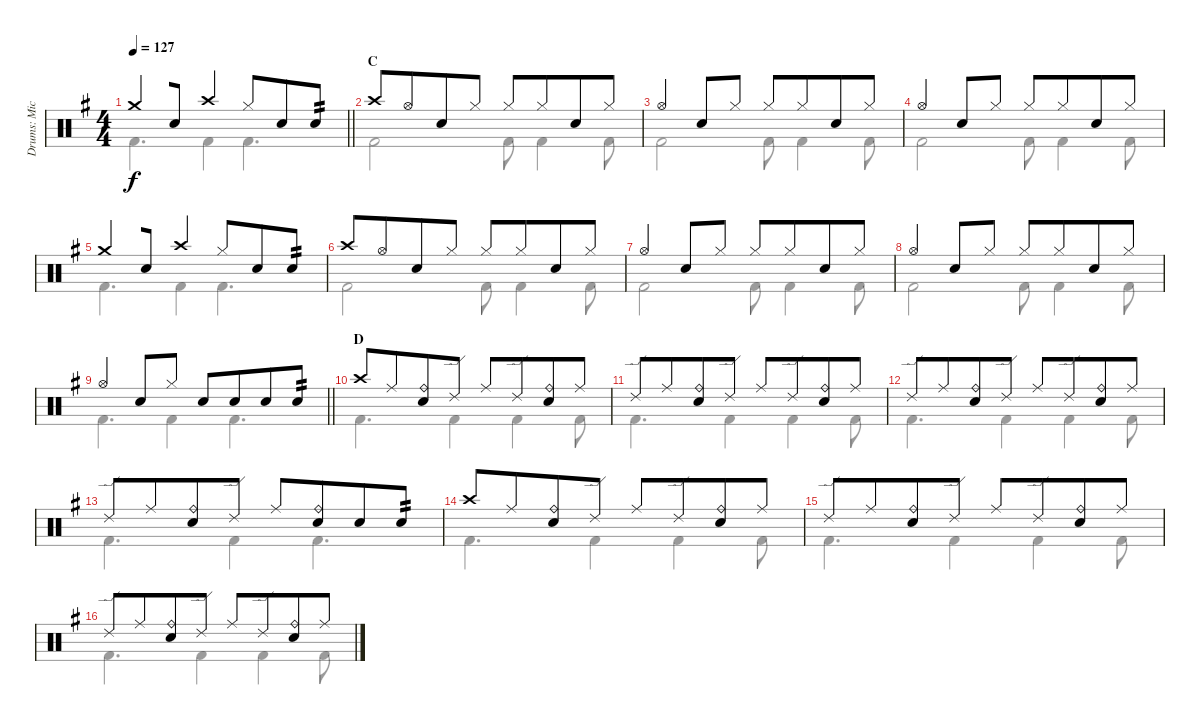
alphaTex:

\track ("Drums: Mick" "Drums: Mic") {instrument percussion}
\staff {score}
\articulation defaults
\voice
\ts (4 4)
\tempo 127
\clef neutral
\barLineRight lightlight
\ks g "Crash medium (hit)".4{dy f beam merge} "Electric Snare (hit)".8 "Crash high (hit)".4 "Hi-Hat (closed)".8{beam merge} "Electric Snare (hit)".8 "Electric Snare (hit)".8{tp 2}
|
\section ("" "C")
"Crash high (hit)".8 "Hi-Hat (open)".8{beam merge} "Electric Snare (hit)".8 "Hi-Hat (closed)".8 "Hi-Hat (closed)".8 "Hi-Hat (closed)".8{beam merge} "Electric Snare (hit)".8 "Hi-Hat (closed)".8 |
"Hi-Hat (open)".4{beam merge} "Electric Snare (hit)".8 "Hi-Hat (closed)".8 "Hi-Hat (closed)".8 "Hi-Hat (closed)".8{beam merge} "Electric Snare (hit)".8 "Hi-Hat (closed)".8 |
"Hi-Hat (open)".4{beam merge} "Electric Snare (hit)".8 "Hi-Hat (closed)".8 "Hi-Hat (closed)".8 "Hi-Hat (closed)".8{beam merge} "Electric Snare (hit)".8 "Hi-Hat (closed)".8 |
"Crash medium (hit)".4{beam merge} "Electric Snare (hit)".8 "Crash high (hit)".4 "Hi-Hat (closed)".8{beam merge} "Electric Snare (hit)".8 "Electric Snare (hit)".8{tp 2} |
"Crash high (hit)".8 "Hi-Hat (open)".8{beam merge} "Electric Snare (hit)".8 "Hi-Hat (closed)".8 "Hi-Hat (closed)".8 "Hi-Hat (closed)".8{beam merge} "Electric Snare (hit)".8 "Hi-Hat (closed)".8 |
"Hi-Hat (open)".4{beam merge} "Electric Snare (hit)".8 "Hi-Hat (closed)".8 "Hi-Hat (closed)".8 "Hi-Hat (closed)".8{beam merge} "Electric Snare (hit)".8 "Hi-Hat (closed)".8 |
"Hi-Hat (open)".4{beam merge} "Electric Snare (hit)".8 "Hi-Hat (closed)".8 "Hi-Hat (closed)".8 "Hi-Hat (closed)".8{beam merge} "Electric Snare (hit)".8 "Hi-Hat (closed)".8 |
\barLineRight lightlight "Hi-Hat (open)".4{beam merge} "Electric Snare (hit)".8 "Hi-Hat (closed)".8 "Electric Snare (hit)".8 "Electric Snare (hit)".8{beam merge} "Electric Snare (hit)".8 "Electric Snare (hit)".8{tp 2}
|
\section ("" "D")
"Crash high (hit)".8 "Ride (middle)".8{beam merge} ("Ride (bell)" "Electric Snare (hit)").8 "Ride (edge) 2".8 "Ride (middle)".8 "Ride (edge) 2".8{beam merge} ("Ride (bell)" "Electric Snare (hit)").8 "Ride (middle)".8 |
"Ride (edge) 2".8 "Ride (middle)".8{beam merge} ("Ride (bell)" "Electric Snare (hit)").8 "Ride (edge) 2".8 "Ride (middle)".8 "Ride (edge) 2".8{beam merge} ("Ride (bell)" "Electric Snare (hit)").8 "Ride (middle)".8 |
"Ride (edge) 2".8 "Ride (middle)".8{beam merge} ("Ride (bell)" "Electric Snare (hit)").8 "Ride (edge) 2".8 "Ride (middle)".8 "Ride (edge) 2".8{beam merge} ("Ride (bell)" "Electric Snare (hit)").8 "Ride (middle)".8 |
"Ride (edge) 2".8 "Ride (middle)".8{beam merge} ("Ride (bell)" "Electric Snare (hit)").8 "Ride (edge) 2".8 "Ride (middle)".8{beam merge} ("Ride (bell)" "Electric Snare (hit)").8{beam merge} "Electric Snare (hit)".8 "Electric Snare (hit)".8{tp 2} |
"Crash high (hit)".8 "Ride (middle)".8{beam merge} ("Ride (bell)" "Electric Snare (hit)").8 "Ride (edge) 2".8 "Ride (middle)".8 "Ride (edge) 2".8{beam merge} ("Ride (bell)" "Electric Snare (hit)").8 "Ride (middle)".8 |
"Ride (edge) 2".8 "Ride (middle)".8{beam merge} ("Ride (bell)" "Electric Snare (hit)").8 "Ride (edge) 2".8 "Ride (middle)".8 "Ride (edge) 2".8{beam merge} ("Ride (bell)" "Electric Snare (hit)").8 "Ride (middle)".8 |
"Ride (edge) 2".8 "Ride (middle)".8{beam merge} ("Ride (bell)" "Electric Snare (hit)").8 "Ride (edge) 2".8 "Ride (middle)".8 "Ride (edge) 2".8{beam merge} ("Ride (bell)" "Electric Snare (hit)").8 "Ride (middle)".8
\voice
\clef neutral
\ottava regular
\simile none
\barLineRight lightlight
\ks g "Kick (hit) 2".4{d dy f} "Kick (hit) 2".4 "Kick (hit) 2".4{d}
|
"Kick (hit) 2".2 "Kick (hit) 2".8 "Kick (hit) 2".4 "Kick (hit) 2".8 |
"Kick (hit) 2".2 "Kick (hit) 2".8 "Kick (hit) 2".4 "Kick (hit) 2".8 |
"Kick (hit) 2".2 "Kick (hit) 2".8 "Kick (hit) 2".4 "Kick (hit) 2".8 |
"Kick (hit) 2".4{d} "Kick (hit) 2".4 "Kick (hit) 2".4{d} |
"Kick (hit) 2".2 "Kick (hit) 2".8 "Kick (hit) 2".4 "Kick (hit) 2".8 |
"Kick (hit) 2".2 "Kick (hit) 2".8 "Kick (hit) 2".4 "Kick (hit) 2".8 |
"Kick (hit) 2".2 "Kick (hit) 2".8 "Kick (hit) 2".4 "Kick (hit) 2".8 |
\barLineRight lightlight "Kick (hit) 2".4{d} "Kick (hit) 2".4 "Kick (hit) 2".4{d}
|
"Kick (hit) 2".4{d} "Kick (hit) 2".4 "Kick (hit) 2".4 "Kick (hit) 2".8 |
"Kick (hit) 2".4{d} "Kick (hit) 2".4 "Kick (hit) 2".4 "Kick (hit) 2".8 |
"Kick (hit) 2".4{d} "Kick (hit) 2".4 "Kick (hit) 2".4 "Kick (hit) 2".8 |
"Kick (hit) 2".4{d} "Kick (hit) 2".4 "Kick (hit) 2".4{d} |
"Kick (hit) 2".4{d} "Kick (hit) 2".4 "Kick (hit) 2".4 "Kick (hit) 2".8 |
"Kick (hit) 2".4{d} "Kick (hit) 2".4 "Kick (hit) 2".4 "Kick (hit) 2".8 |
"Kick (hit) 2".4{d} "Kick (hit) 2".4 "Kick (hit) 2".4 "Kick (hit) 2".8
